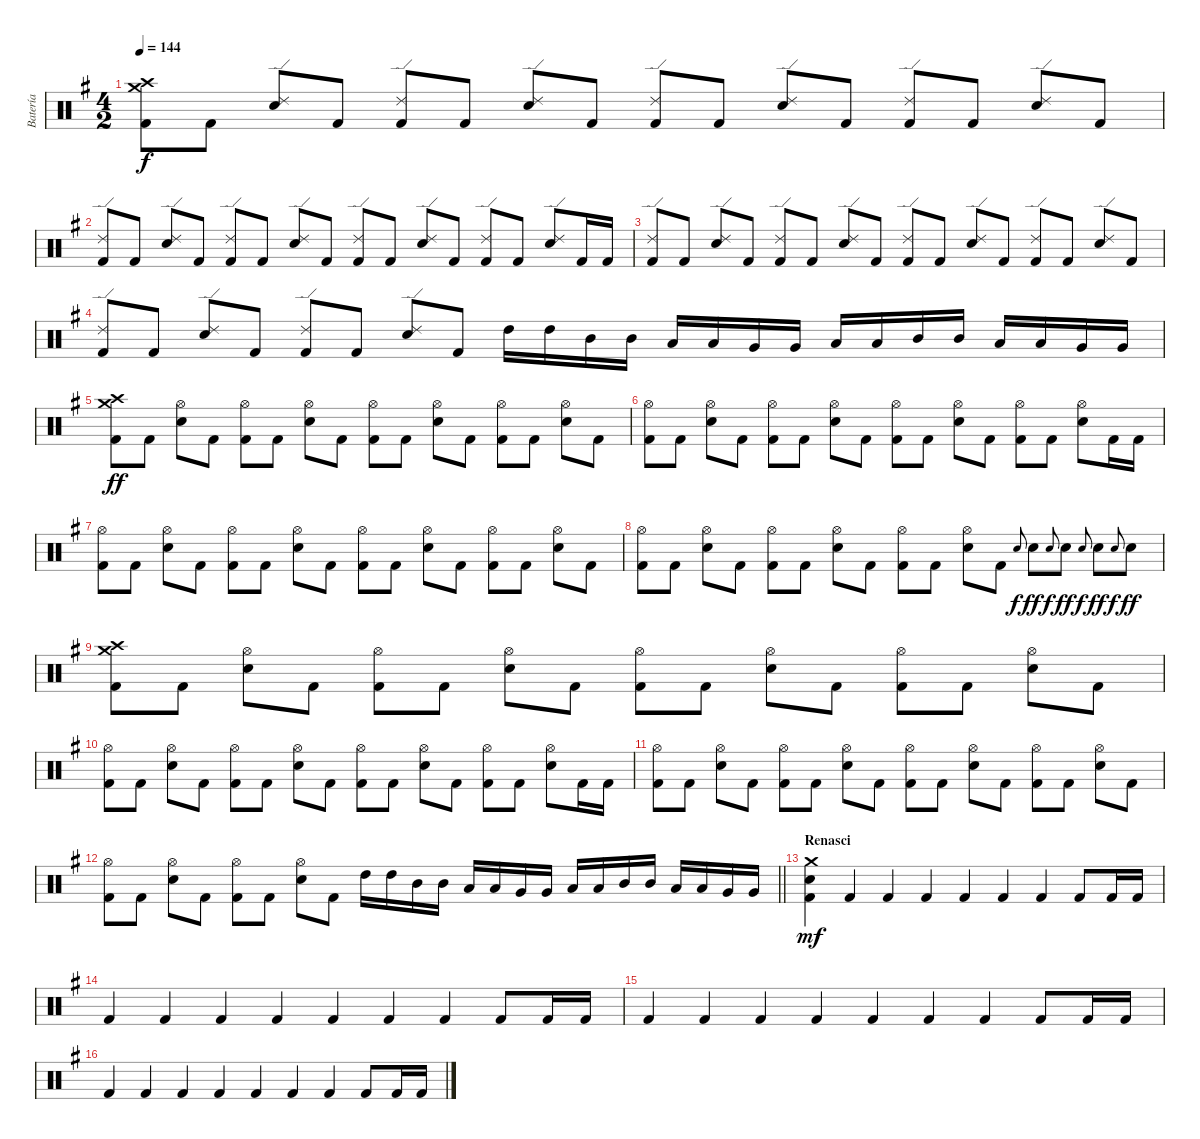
\track ("Batería" "Batería") {instrument percussion}
\staff {score}
\articulation defaults
\ts (4 2)
\tempo 144
\clef neutral
\ks eminor
("Crash medium (hit)" "Crash high (hit)" "Kick (hit) 2").8{dy f} "Kick (hit) 2".8 ("Ride (edge) 2" "Snare (hit) 2").8 "Kick (hit) 2".8 ("Ride (edge) 2" "Kick (hit) 2").8 "Kick (hit) 2".8 ("Ride (edge) 2" "Snare (hit) 2").8 "Kick (hit) 2".8 ("Ride (edge) 2" "Kick (hit) 2").8 "Kick (hit) 2".8 ("Ride (edge) 2" "Snare (hit) 2").8 "Kick (hit) 2".8 ("Ride (edge) 2" "Kick (hit) 2").8 "Kick (hit) 2".8 ("Ride (edge) 2" "Snare (hit) 2").8 "Kick (hit) 2".8 |
("Ride (edge) 2" "Kick (hit) 2").8 "Kick (hit) 2".8 ("Ride (edge) 2" "Snare (hit) 2").8 "Kick (hit) 2".8 ("Ride (edge) 2" "Kick (hit) 2").8 "Kick (hit) 2".8 ("Ride (edge) 2" "Snare (hit) 2").8 "Kick (hit) 2".8 ("Ride (edge) 2" "Kick (hit) 2").8 "Kick (hit) 2".8 ("Ride (edge) 2" "Snare (hit) 2").8 "Kick (hit) 2".8 ("Ride (edge) 2" "Kick (hit) 2").8 "Kick (hit) 2".8 ("Ride (edge) 2" "Snare (hit) 2").8 "Kick (hit) 2".16 "Kick (hit) 2".16 |
("Ride (edge) 2" "Kick (hit) 2").8 "Kick (hit) 2".8 ("Ride (edge) 2" "Snare (hit) 2").8 "Kick (hit) 2".8 ("Ride (edge) 2" "Kick (hit) 2").8 "Kick (hit) 2".8 ("Ride (edge) 2" "Snare (hit) 2").8 "Kick (hit) 2".8 ("Ride (edge) 2" "Kick (hit) 2").8 "Kick (hit) 2".8 ("Ride (edge) 2" "Snare (hit) 2").8 "Kick (hit) 2".8 ("Ride (edge) 2" "Kick (hit) 2").8 "Kick (hit) 2".8 ("Ride (edge) 2" "Snare (hit) 2").8 "Kick (hit) 2".8 |
("Ride (edge) 2" "Kick (hit) 2").8 "Kick (hit) 2".8 ("Ride (edge) 2" "Snare (hit) 2").8 "Kick (hit) 2".8 ("Ride (edge) 2" "Kick (hit) 2").8 "Kick (hit) 2".8 ("Ride (edge) 2" "Snare (hit) 2").8 "Kick (hit) 2".8 "High Tom (hit)".16 "High Tom (hit)".16 "Mid Tom (hit)".16 "Mid Tom (hit)".16 "Low Tom (hit)".16 "Low Tom (hit)".16 "Very Low Tom (hit)".16 "Very Low Tom (hit)".16 "Low Floor Tom (hit)".16 "Low Floor Tom (hit)".16 "Mid Tom (hit)".16 "Mid Tom (hit)".16 "Low Tom (hit)".16 "Low Tom (hit)".16 "Very Low Tom (hit)".16 "Very Low Tom (hit)".16 |
("Crash medium (hit)" "Crash high (hit)" "Kick (hit) 2").8{dy ff} "Kick (hit) 2".8 ("Hi-Hat (open)" "Snare (hit) 2").8 "Kick (hit) 2".8 ("Hi-Hat (open)" "Kick (hit) 2").8 "Kick (hit) 2".8 ("Hi-Hat (open)" "Snare (hit) 2").8 "Kick (hit) 2".8 ("Hi-Hat (open)" "Kick (hit) 2").8 "Kick (hit) 2".8 ("Hi-Hat (open)" "Snare (hit) 2").8 "Kick (hit) 2".8 ("Hi-Hat (open)" "Kick (hit) 2").8 "Kick (hit) 2".8 ("Hi-Hat (open)" "Snare (hit) 2").8 "Kick (hit) 2".8 |
("Hi-Hat (open)" "Kick (hit) 2").8 "Kick (hit) 2".8 ("Hi-Hat (open)" "Snare (hit) 2").8 "Kick (hit) 2".8 ("Hi-Hat (open)" "Kick (hit) 2").8 "Kick (hit) 2".8 ("Hi-Hat (open)" "Snare (hit) 2").8 "Kick (hit) 2".8 ("Hi-Hat (open)" "Kick (hit) 2").8 "Kick (hit) 2".8 ("Hi-Hat (open)" "Snare (hit) 2").8 "Kick (hit) 2".8 ("Hi-Hat (open)" "Kick (hit) 2").8 "Kick (hit) 2".8 ("Hi-Hat (open)" "Snare (hit) 2").8 "Kick (hit) 2".16 "Kick (hit) 2".16 |
("Hi-Hat (open)" "Kick (hit) 2").8 "Kick (hit) 2".8 ("Hi-Hat (open)" "Snare (hit) 2").8 "Kick (hit) 2".8 ("Hi-Hat (open)" "Kick (hit) 2").8 "Kick (hit) 2".8 ("Hi-Hat (open)" "Snare (hit) 2").8 "Kick (hit) 2".8 ("Hi-Hat (open)" "Kick (hit) 2").8 "Kick (hit) 2".8 ("Hi-Hat (open)" "Snare (hit) 2").8 "Kick (hit) 2".8 ("Hi-Hat (open)" "Kick (hit) 2").8 "Kick (hit) 2".8 ("Hi-Hat (open)" "Snare (hit) 2").8 "Kick (hit) 2".8 |
("Hi-Hat (open)" "Kick (hit) 2").8 "Kick (hit) 2".8 ("Hi-Hat (open)" "Snare (hit) 2").8 "Kick (hit) 2".8 ("Hi-Hat (open)" "Kick (hit) 2").8 "Kick (hit) 2".8 ("Hi-Hat (open)" "Snare (hit) 2").8 "Kick (hit) 2".8 ("Hi-Hat (open)" "Kick (hit) 2").8 "Kick (hit) 2".8 ("Hi-Hat (open)" "Snare (hit) 2").8 "Kick (hit) 2".8 "Snare (hit) 2".8{gr onbeat dy f} "Snare (hit) 2".8{dy ff} "Snare (hit) 2".8{gr onbeat dy f} "Snare (hit) 2".8{dy ff} "Snare (hit) 2".8{gr onbeat dy f} "Snare (hit) 2".8{dy ff} "Snare (hit) 2".8{gr onbeat dy f} "Snare (hit) 2".8{dy ff} |
("Crash medium (hit)" "Crash high (hit)" "Kick (hit) 2").8 "Kick (hit) 2".8 ("Hi-Hat (open)" "Snare (hit) 2").8 "Kick (hit) 2".8 ("Hi-Hat (open)" "Kick (hit) 2").8 "Kick (hit) 2".8 ("Hi-Hat (open)" "Snare (hit) 2").8 "Kick (hit) 2".8 ("Hi-Hat (open)" "Kick (hit) 2").8 "Kick (hit) 2".8 ("Hi-Hat (open)" "Snare (hit) 2").8 "Kick (hit) 2".8 ("Hi-Hat (open)" "Kick (hit) 2").8 "Kick (hit) 2".8 ("Hi-Hat (open)" "Snare (hit) 2").8 "Kick (hit) 2".8 |
("Hi-Hat (open)" "Kick (hit) 2").8 "Kick (hit) 2".8 ("Hi-Hat (open)" "Snare (hit) 2").8 "Kick (hit) 2".8 ("Hi-Hat (open)" "Kick (hit) 2").8 "Kick (hit) 2".8 ("Hi-Hat (open)" "Snare (hit) 2").8 "Kick (hit) 2".8 ("Hi-Hat (open)" "Kick (hit) 2").8 "Kick (hit) 2".8 ("Hi-Hat (open)" "Snare (hit) 2").8 "Kick (hit) 2".8 ("Hi-Hat (open)" "Kick (hit) 2").8 "Kick (hit) 2".8 ("Hi-Hat (open)" "Snare (hit) 2").8 "Kick (hit) 2".16 "Kick (hit) 2".16 |
("Hi-Hat (open)" "Kick (hit) 2").8 "Kick (hit) 2".8 ("Hi-Hat (open)" "Snare (hit) 2").8 "Kick (hit) 2".8 ("Hi-Hat (open)" "Kick (hit) 2").8 "Kick (hit) 2".8 ("Hi-Hat (open)" "Snare (hit) 2").8 "Kick (hit) 2".8 ("Hi-Hat (open)" "Kick (hit) 2").8 "Kick (hit) 2".8 ("Hi-Hat (open)" "Snare (hit) 2").8 "Kick (hit) 2".8 ("Hi-Hat (open)" "Kick (hit) 2").8 "Kick (hit) 2".8 ("Hi-Hat (open)" "Snare (hit) 2").8 "Kick (hit) 2".8 |
\barLineRight lightlight
("Hi-Hat (open)" "Kick (hit) 2").8 "Kick (hit) 2".8 ("Hi-Hat (open)" "Snare (hit) 2").8 "Kick (hit) 2".8 ("Hi-Hat (open)" "Kick (hit) 2").8 "Kick (hit) 2".8 ("Hi-Hat (open)" "Snare (hit) 2").8 "Kick (hit) 2".8 "High Tom (hit)".16 "High Tom (hit)".16 "Mid Tom (hit)".16 "Mid Tom (hit)".16 "Low Tom (hit)".16 "Low Tom (hit)".16 "Very Low Tom (hit)".16 "Very Low Tom (hit)".16 "Low Floor Tom (hit)".16 "Low Floor Tom (hit)".16 "Mid Tom (hit)".16 "Mid Tom (hit)".16 "Low Tom (hit)".16 "Low Tom (hit)".16 "Very Low Tom (hit)".16 "Very Low Tom (hit)".16 |
\section ("" "Renasci")
("Crash medium (hit)" "Snare (hit) 2" "Kick (hit) 2").4{dy mf} "Kick (hit) 2".4 "Kick (hit) 2".4 "Kick (hit) 2".4 "Kick (hit) 2".4 "Kick (hit) 2".4 "Kick (hit) 2".4 "Kick (hit) 2".8 "Kick (hit) 2".16 "Kick (hit) 2".16 |
"Kick (hit) 2".4 "Kick (hit) 2".4 "Kick (hit) 2".4 "Kick (hit) 2".4 "Kick (hit) 2".4 "Kick (hit) 2".4 "Kick (hit) 2".4 "Kick (hit) 2".8 "Kick (hit) 2".16 "Kick (hit) 2".16 |
"Kick (hit) 2".4 "Kick (hit) 2".4 "Kick (hit) 2".4 "Kick (hit) 2".4 "Kick (hit) 2".4 "Kick (hit) 2".4 "Kick (hit) 2".4 "Kick (hit) 2".8 "Kick (hit) 2".16 "Kick (hit) 2".16 |
"Kick (hit) 2".4 "Kick (hit) 2".4 "Kick (hit) 2".4 "Kick (hit) 2".4 "Kick (hit) 2".4 "Kick (hit) 2".4 "Kick (hit) 2".4 "Kick (hit) 2".8 "Kick (hit) 2".16 "Kick (hit) 2".16
